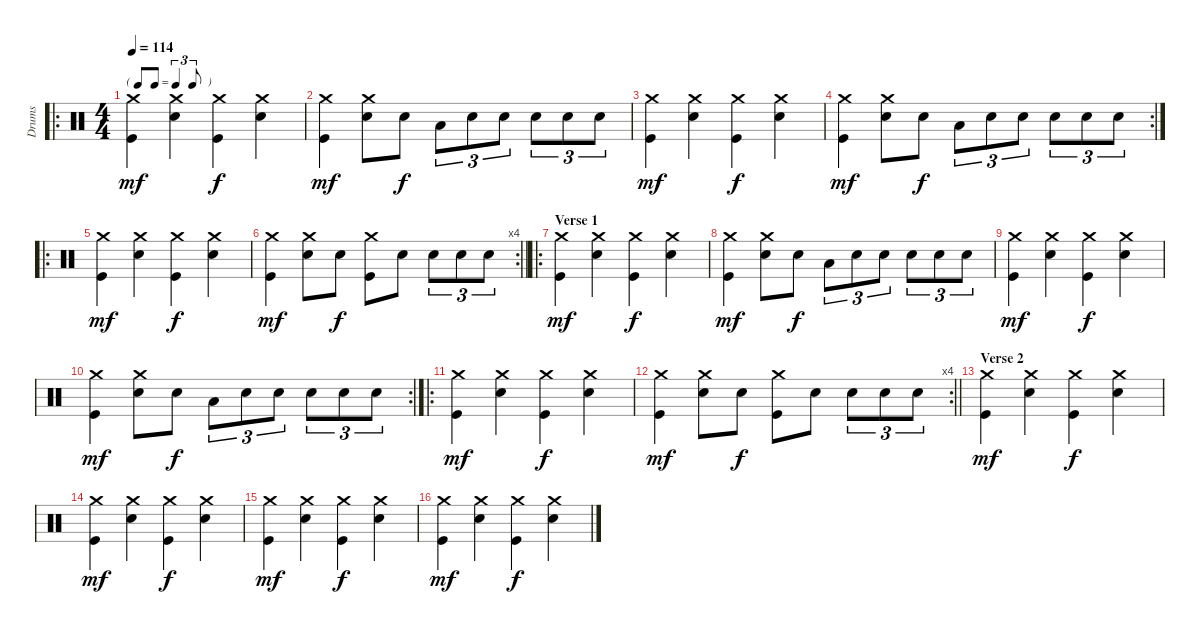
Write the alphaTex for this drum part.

\track ("Drums" "Drums") {instrument percussion}
\staff {score}
\articulation defaults
\ro
\ts (4 4)
\tf triplet8th
\tempo 114
\clef neutral
\ks c
("Crash medium (hit)" "Kick (hit)").4{dy mf beam merge} ("Crash medium (hit)" "Snare (hit) 2").4 ("Crash medium (hit)" "Kick (hit)").4{dy f beam merge} ("Crash medium (hit)" "Snare (hit) 2").4 |
("Crash medium (hit)" "Kick (hit)").4{dy mf beam merge} ("Crash medium (hit)" "Snare (hit) 2").8 "Snare (hit) 2".8{dy f} "Low Tom (hit)".8{tu (3 2)} "Snare (hit) 2".8{tu (3 2)} "Snare (hit) 2".8{tu (3 2)} "Snare (hit) 2".8{tu (3 2)} "Snare (hit) 2".8{tu (3 2)} "Snare (hit) 2".8{tu (3 2)} |
("Crash medium (hit)" "Kick (hit)").4{dy mf beam merge} ("Crash medium (hit)" "Snare (hit) 2").4 ("Crash medium (hit)" "Kick (hit)").4{dy f beam merge} ("Crash medium (hit)" "Snare (hit) 2").4 |
\rc 2
("Crash medium (hit)" "Kick (hit)").4{dy mf beam merge} ("Crash medium (hit)" "Snare (hit) 2").8 "Snare (hit) 2".8{dy f} "Low Tom (hit)".8{tu (3 2)} "Snare (hit) 2".8{tu (3 2)} "Snare (hit) 2".8{tu (3 2)} "Snare (hit) 2".8{tu (3 2)} "Snare (hit) 2".8{tu (3 2)} "Snare (hit) 2".8{tu (3 2)} |
\ro
("Crash medium (hit)" "Kick (hit)").4{dy mf beam merge} ("Crash medium (hit)" "Snare (hit) 2").4 ("Crash medium (hit)" "Kick (hit)").4{dy f beam merge} ("Crash medium (hit)" "Snare (hit) 2").4 |
\rc 4
\barLineRight lightlight
("Crash medium (hit)" "Kick (hit)").4{dy mf beam merge} ("Crash medium (hit)" "Snare (hit) 2").8 "Snare (hit) 2".8{dy f} ("Crash medium (hit)" "Kick (hit)").8 "Snare (hit) 2".8 "Snare (hit) 2".8{tu (3 2)} "Snare (hit) 2".8{tu (3 2)} "Snare (hit) 2".8{tu (3 2)} |
\ro
\section ("" "Verse 1")
("Crash medium (hit)" "Kick (hit)").4{dy mf beam merge} ("Crash medium (hit)" "Snare (hit) 2").4 ("Crash medium (hit)" "Kick (hit)").4{dy f beam merge} ("Crash medium (hit)" "Snare (hit) 2").4 |
("Crash medium (hit)" "Kick (hit)").4{dy mf beam merge} ("Crash medium (hit)" "Snare (hit) 2").8 "Snare (hit) 2".8{dy f} "Low Tom (hit)".8{tu (3 2)} "Snare (hit) 2".8{tu (3 2)} "Snare (hit) 2".8{tu (3 2)} "Snare (hit) 2".8{tu (3 2)} "Snare (hit) 2".8{tu (3 2)} "Snare (hit) 2".8{tu (3 2)} |
("Crash medium (hit)" "Kick (hit)").4{dy mf beam merge} ("Crash medium (hit)" "Snare (hit) 2").4 ("Crash medium (hit)" "Kick (hit)").4{dy f beam merge} ("Crash medium (hit)" "Snare (hit) 2").4 |
\rc 2
("Crash medium (hit)" "Kick (hit)").4{dy mf beam merge} ("Crash medium (hit)" "Snare (hit) 2").8 "Snare (hit) 2".8{dy f} "Low Tom (hit)".8{tu (3 2)} "Snare (hit) 2".8{tu (3 2)} "Snare (hit) 2".8{tu (3 2)} "Snare (hit) 2".8{tu (3 2)} "Snare (hit) 2".8{tu (3 2)} "Snare (hit) 2".8{tu (3 2)} |
\ro
("Crash medium (hit)" "Kick (hit)").4{dy mf beam merge} ("Crash medium (hit)" "Snare (hit) 2").4 ("Crash medium (hit)" "Kick (hit)").4{dy f beam merge} ("Crash medium (hit)" "Snare (hit) 2").4 |
\rc 4
\barLineRight lightlight
("Crash medium (hit)" "Kick (hit)").4{dy mf beam merge} ("Crash medium (hit)" "Snare (hit) 2").8 "Snare (hit) 2".8{dy f} ("Crash medium (hit)" "Kick (hit)").8 "Snare (hit) 2".8 "Snare (hit) 2".8{tu (3 2)} "Snare (hit) 2".8{tu (3 2)} "Snare (hit) 2".8{tu (3 2)} |
\section ("" "Verse 2")
("Crash medium (hit)" "Kick (hit)").4{dy mf beam merge} ("Crash medium (hit)" "Snare (hit) 2").4 ("Crash medium (hit)" "Kick (hit)").4{dy f beam merge} ("Crash medium (hit)" "Snare (hit) 2").4 |
("Crash medium (hit)" "Kick (hit)").4{dy mf beam merge} ("Crash medium (hit)" "Snare (hit) 2").4 ("Crash medium (hit)" "Kick (hit)").4{dy f beam merge} ("Crash medium (hit)" "Snare (hit) 2").4 |
("Crash medium (hit)" "Kick (hit)").4{dy mf beam merge} ("Crash medium (hit)" "Snare (hit) 2").4 ("Crash medium (hit)" "Kick (hit)").4{dy f beam merge} ("Crash medium (hit)" "Snare (hit) 2").4 |
("Crash medium (hit)" "Kick (hit)").4{dy mf beam merge} ("Crash medium (hit)" "Snare (hit) 2").4 ("Crash medium (hit)" "Kick (hit)").4{dy f beam merge} ("Crash medium (hit)" "Snare (hit) 2").4
